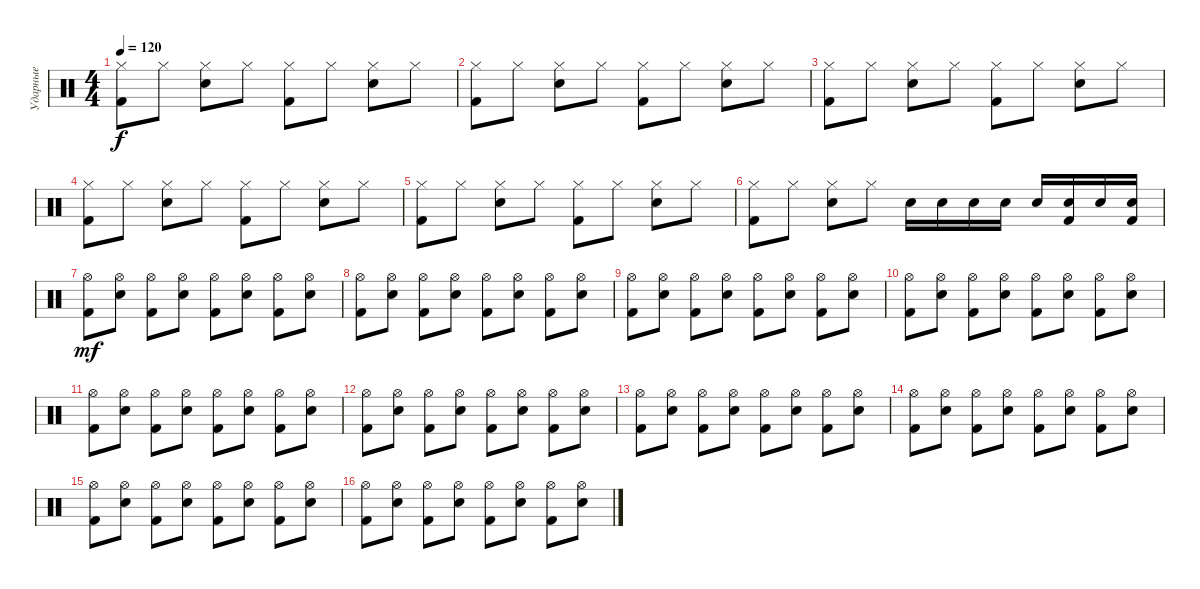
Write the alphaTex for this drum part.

\track ("Ударные" "Ударные") {instrument percussion}
\staff {score}
\articulation defaults
\ts (4 4)
\tempo 120
\clef neutral
\ks c
("Hi-Hat (closed)" "Kick (hit) 2").8{dy f} "Hi-Hat (closed)".8 ("Hi-Hat (closed)" "Electric Snare (hit)").8 "Hi-Hat (closed)".8 ("Hi-Hat (closed)" "Kick (hit) 2").8 "Hi-Hat (closed)".8 ("Hi-Hat (closed)" "Electric Snare (hit)").8 "Hi-Hat (closed)".8 |
("Hi-Hat (closed)" "Kick (hit) 2").8 "Hi-Hat (closed)".8 ("Hi-Hat (closed)" "Electric Snare (hit)").8 "Hi-Hat (closed)".8 ("Hi-Hat (closed)" "Kick (hit) 2").8 "Hi-Hat (closed)".8 ("Hi-Hat (closed)" "Electric Snare (hit)").8 "Hi-Hat (closed)".8 |
("Hi-Hat (closed)" "Kick (hit) 2").8 "Hi-Hat (closed)".8 ("Hi-Hat (closed)" "Electric Snare (hit)").8 "Hi-Hat (closed)".8 ("Hi-Hat (closed)" "Kick (hit) 2").8 "Hi-Hat (closed)".8 ("Hi-Hat (closed)" "Electric Snare (hit)").8 "Hi-Hat (closed)".8 |
("Hi-Hat (closed)" "Kick (hit) 2").8 "Hi-Hat (closed)".8 ("Hi-Hat (closed)" "Electric Snare (hit)").8 "Hi-Hat (closed)".8 ("Hi-Hat (closed)" "Kick (hit) 2").8 "Hi-Hat (closed)".8 ("Hi-Hat (closed)" "Electric Snare (hit)").8 "Hi-Hat (closed)".8 |
("Hi-Hat (closed)" "Kick (hit) 2").8 "Hi-Hat (closed)".8 ("Hi-Hat (closed)" "Electric Snare (hit)").8 "Hi-Hat (closed)".8 ("Hi-Hat (closed)" "Kick (hit) 2").8 "Hi-Hat (closed)".8 ("Hi-Hat (closed)" "Electric Snare (hit)").8 "Hi-Hat (closed)".8 |
("Hi-Hat (closed)" "Kick (hit) 2").8 "Hi-Hat (closed)".8 ("Hi-Hat (closed)" "Electric Snare (hit)").8 "Hi-Hat (closed)".8 "Electric Snare (hit)".16 "Electric Snare (hit)".16 "Electric Snare (hit)".16 "Electric Snare (hit)".16 "Electric Snare (hit)".16 ("Electric Snare (hit)" "Kick (hit) 2").16 "Electric Snare (hit)".16 ("Electric Snare (hit)" "Kick (hit) 2").16 |
("Hi-Hat (open)" "Kick (hit) 2").8{dy mf} ("Hi-Hat (open)" "Electric Snare (hit)").8 ("Hi-Hat (open)" "Kick (hit) 2").8 ("Hi-Hat (open)" "Electric Snare (hit)").8 ("Hi-Hat (open)" "Kick (hit) 2").8 ("Hi-Hat (open)" "Electric Snare (hit)").8 ("Hi-Hat (open)" "Kick (hit) 2").8 ("Hi-Hat (open)" "Electric Snare (hit)").8 |
("Hi-Hat (open)" "Kick (hit) 2").8 ("Hi-Hat (open)" "Electric Snare (hit)").8 ("Hi-Hat (open)" "Kick (hit) 2").8 ("Hi-Hat (open)" "Electric Snare (hit)").8 ("Hi-Hat (open)" "Kick (hit) 2").8 ("Hi-Hat (open)" "Electric Snare (hit)").8 ("Hi-Hat (open)" "Kick (hit) 2").8 ("Hi-Hat (open)" "Electric Snare (hit)").8 |
("Hi-Hat (open)" "Kick (hit) 2").8 ("Hi-Hat (open)" "Electric Snare (hit)").8 ("Hi-Hat (open)" "Kick (hit) 2").8 ("Hi-Hat (open)" "Electric Snare (hit)").8 ("Hi-Hat (open)" "Kick (hit) 2").8 ("Hi-Hat (open)" "Electric Snare (hit)").8 ("Hi-Hat (open)" "Kick (hit) 2").8 ("Hi-Hat (open)" "Electric Snare (hit)").8 |
("Hi-Hat (open)" "Kick (hit) 2").8 ("Hi-Hat (open)" "Electric Snare (hit)").8 ("Hi-Hat (open)" "Kick (hit) 2").8 ("Hi-Hat (open)" "Electric Snare (hit)").8 ("Hi-Hat (open)" "Kick (hit) 2").8 ("Hi-Hat (open)" "Electric Snare (hit)").8 ("Hi-Hat (open)" "Kick (hit) 2").8 ("Hi-Hat (open)" "Electric Snare (hit)").8 |
("Hi-Hat (open)" "Kick (hit) 2").8 ("Hi-Hat (open)" "Electric Snare (hit)").8 ("Hi-Hat (open)" "Kick (hit) 2").8 ("Hi-Hat (open)" "Electric Snare (hit)").8 ("Hi-Hat (open)" "Kick (hit) 2").8 ("Hi-Hat (open)" "Electric Snare (hit)").8 ("Hi-Hat (open)" "Kick (hit) 2").8 ("Hi-Hat (open)" "Electric Snare (hit)").8 |
("Hi-Hat (open)" "Kick (hit) 2").8 ("Hi-Hat (open)" "Electric Snare (hit)").8 ("Hi-Hat (open)" "Kick (hit) 2").8 ("Hi-Hat (open)" "Electric Snare (hit)").8 ("Hi-Hat (open)" "Kick (hit) 2").8 ("Hi-Hat (open)" "Electric Snare (hit)").8 ("Hi-Hat (open)" "Kick (hit) 2").8 ("Hi-Hat (open)" "Electric Snare (hit)").8 |
("Hi-Hat (open)" "Kick (hit) 2").8 ("Hi-Hat (open)" "Electric Snare (hit)").8 ("Hi-Hat (open)" "Kick (hit) 2").8 ("Hi-Hat (open)" "Electric Snare (hit)").8 ("Hi-Hat (open)" "Kick (hit) 2").8 ("Hi-Hat (open)" "Electric Snare (hit)").8 ("Hi-Hat (open)" "Kick (hit) 2").8 ("Hi-Hat (open)" "Electric Snare (hit)").8 |
("Hi-Hat (open)" "Kick (hit) 2").8 ("Hi-Hat (open)" "Electric Snare (hit)").8 ("Hi-Hat (open)" "Kick (hit) 2").8 ("Hi-Hat (open)" "Electric Snare (hit)").8 ("Hi-Hat (open)" "Kick (hit) 2").8 ("Hi-Hat (open)" "Electric Snare (hit)").8 ("Hi-Hat (open)" "Kick (hit) 2").8 ("Hi-Hat (open)" "Electric Snare (hit)").8 |
("Hi-Hat (open)" "Kick (hit) 2").8 ("Hi-Hat (open)" "Electric Snare (hit)").8 ("Hi-Hat (open)" "Kick (hit) 2").8 ("Hi-Hat (open)" "Electric Snare (hit)").8 ("Hi-Hat (open)" "Kick (hit) 2").8 ("Hi-Hat (open)" "Electric Snare (hit)").8 ("Hi-Hat (open)" "Kick (hit) 2").8 ("Hi-Hat (open)" "Electric Snare (hit)").8 |
("Hi-Hat (open)" "Kick (hit) 2").8 ("Hi-Hat (open)" "Electric Snare (hit)").8 ("Hi-Hat (open)" "Kick (hit) 2").8 ("Hi-Hat (open)" "Electric Snare (hit)").8 ("Hi-Hat (open)" "Kick (hit) 2").8 ("Hi-Hat (open)" "Electric Snare (hit)").8 ("Hi-Hat (open)" "Kick (hit) 2").8 ("Hi-Hat (open)" "Electric Snare (hit)").8
